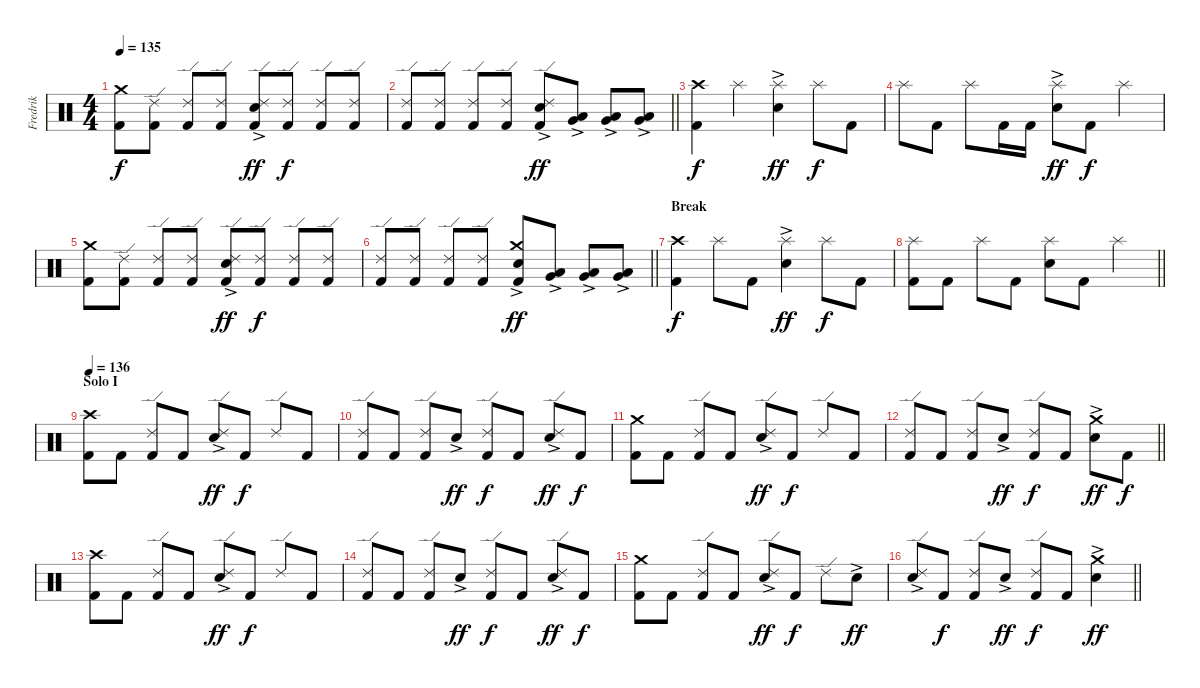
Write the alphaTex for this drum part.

\track ("Fredrik" "Fredrik") {instrument percussion}
\staff {score}
\articulation defaults
\ts (4 4)
\tempo 135
\clef neutral
\ks c
("Kick (hit) 2" "Crash medium (hit)").8{dy f} ("Kick (hit) 2" "Ride (edge) 2").8 ("Kick (hit) 2" "Ride (edge) 2").8 ("Kick (hit) 2" "Ride (edge) 2").8 ("Kick (hit) 2" "Snare (hit) 2"{ac} "Ride (edge) 2").8{dy ff} ("Kick (hit) 2" "Ride (edge) 2").8{dy f} ("Kick (hit) 2" "Ride (edge) 2").8 ("Kick (hit) 2" "Ride (edge) 2").8 |
\barLineRight lightlight
("Kick (hit) 2" "Ride (edge) 2").8 ("Kick (hit) 2" "Ride (edge) 2").8 ("Kick (hit) 2" "Ride (edge) 2").8 ("Kick (hit) 2" "Ride (edge) 2").8 ("Kick (hit) 2" "Snare (hit) 2"{ac} "Ride (edge) 2").8{dy ff} ("Very Low Tom (hit)"{ac} "Low Floor Tom (hit)"{ac}).8 ("Very Low Tom (hit)"{ac} "Low Floor Tom (hit)"{ac}).8 ("Very Low Tom (hit)"{ac} "Low Floor Tom (hit)"{ac}).8 |
\section ("" "")
("Kick (hit) 2" "Crash high (hit)").4{dy f} "Splash (hit)".4 ("Snare (hit) 2"{ac} "Splash (hit)").4{dy ff} "Splash (hit)".8{dy f} "Kick (hit) 2".8 |
"Splash (hit)".8 "Kick (hit) 2".8 "Splash (hit)".8 "Kick (hit) 2".16 "Kick (hit) 2".16 ("Snare (hit) 2"{ac} "Splash (hit)").8{dy ff} "Kick (hit) 2".8{dy f} "Splash (hit)".4 |
("Kick (hit) 2" "Crash medium (hit)").8 ("Kick (hit) 2" "Ride (edge) 2").8 ("Kick (hit) 2" "Ride (edge) 2").8 ("Kick (hit) 2" "Ride (edge) 2").8 ("Kick (hit) 2" "Snare (hit) 2"{ac} "Ride (edge) 2").8{dy ff} ("Kick (hit) 2" "Ride (edge) 2").8{dy f} ("Kick (hit) 2" "Ride (edge) 2").8 ("Kick (hit) 2" "Ride (edge) 2").8 |
\barLineRight lightlight
("Kick (hit) 2" "Ride (edge) 2").8 ("Kick (hit) 2" "Ride (edge) 2").8 ("Kick (hit) 2" "Ride (edge) 2").8 ("Kick (hit) 2" "Ride (edge) 2").8 ("Kick (hit) 2" "Snare (hit) 2"{ac} "Crash medium (hit)").8{dy ff} ("Very Low Tom (hit)"{ac} "Low Floor Tom (hit)"{ac}).8 ("Very Low Tom (hit)"{ac} "Low Floor Tom (hit)"{ac}).8 ("Very Low Tom (hit)"{ac} "Low Floor Tom (hit)"{ac}).8 |
\section ("" "Break")
("Kick (hit) 2" "Crash high (hit)").4{dy f} "Splash (hit)".8 "Kick (hit) 2".8 ("Snare (hit) 2"{ac} "Splash (hit)").4{dy ff} "Splash (hit)".8{dy f} "Kick (hit) 2".8 |
\barLineRight lightlight
("Kick (hit) 2" "Splash (hit)").8 "Kick (hit) 2".8 "Splash (hit)".8 "Kick (hit) 2".8 ("Snare (hit) 2" "Splash (hit)").8 "Kick (hit) 2".8 "Splash (hit)".4 |
\section ("" "Solo I")
\tempo 136
("Kick (hit) 2" "Crash high (hit)").8 "Kick (hit) 2".8 ("Kick (hit) 2" "Ride (edge) 2").8 "Kick (hit) 2".8 ("Snare (hit) 2"{ac} "Ride (edge) 2").8{dy ff} "Kick (hit) 2".8{dy f} "Ride (edge) 2".8 "Kick (hit) 2".8 |
("Kick (hit) 2" "Ride (edge) 2").8 "Kick (hit) 2".8 ("Kick (hit) 2" "Ride (edge) 2").8 "Snare (hit) 2"{ac}.8{dy ff} ("Kick (hit) 2" "Ride (edge) 2").8{dy f} "Kick (hit) 2".8 ("Snare (hit) 2"{ac} "Ride (edge) 2").8{dy ff} "Kick (hit) 2".8{dy f} |
("Kick (hit) 2" "Crash medium (hit)").8 "Kick (hit) 2".8 ("Kick (hit) 2" "Ride (edge) 2").8 "Kick (hit) 2".8 ("Snare (hit) 2"{ac} "Ride (edge) 2").8{dy ff} "Kick (hit) 2".8{dy f} "Ride (edge) 2".8 "Kick (hit) 2".8 |
\barLineRight lightlight
("Kick (hit) 2" "Ride (edge) 2").8 "Kick (hit) 2".8 ("Kick (hit) 2" "Ride (edge) 2").8 "Snare (hit) 2"{ac}.8{dy ff} ("Kick (hit) 2" "Ride (edge) 2").8{dy f} "Kick (hit) 2".8 ("Snare (hit) 2"{ac} "Crash medium (hit)").8{dy ff} "Kick (hit) 2".8{dy f} |
\section ("" "")
("Kick (hit) 2" "Crash high (hit)").8 "Kick (hit) 2".8 ("Kick (hit) 2" "Ride (edge) 2").8 "Kick (hit) 2".8 ("Snare (hit) 2"{ac} "Ride (edge) 2").8{dy ff} "Kick (hit) 2".8{dy f} "Ride (edge) 2".8 "Kick (hit) 2".8 |
("Kick (hit) 2" "Ride (edge) 2").8 "Kick (hit) 2".8 ("Kick (hit) 2" "Ride (edge) 2").8 "Snare (hit) 2"{ac}.8{dy ff} ("Kick (hit) 2" "Ride (edge) 2").8{dy f} "Kick (hit) 2".8 ("Snare (hit) 2"{ac} "Ride (edge) 2").8{dy ff} "Kick (hit) 2".8{dy f} |
("Kick (hit) 2" "Crash medium (hit)").8 "Kick (hit) 2".8 ("Kick (hit) 2" "Ride (edge) 2").8 "Kick (hit) 2".8 ("Snare (hit) 2"{ac} "Ride (edge) 2").8{dy ff} "Kick (hit) 2".8{dy f} "Ride (edge) 2".8 "Snare (hit) 2"{ac}.8{dy ff} |
\barLineRight lightlight
("Snare (hit) 2"{ac} "Ride (edge) 2").8 "Kick (hit) 2".8{dy f} ("Kick (hit) 2" "Ride (edge) 2").8 "Snare (hit) 2"{ac}.8{dy ff} ("Kick (hit) 2" "Ride (edge) 2").8{dy f} "Kick (hit) 2".8 ("Snare (hit) 2"{ac} "Crash medium (hit)").4{dy ff}
